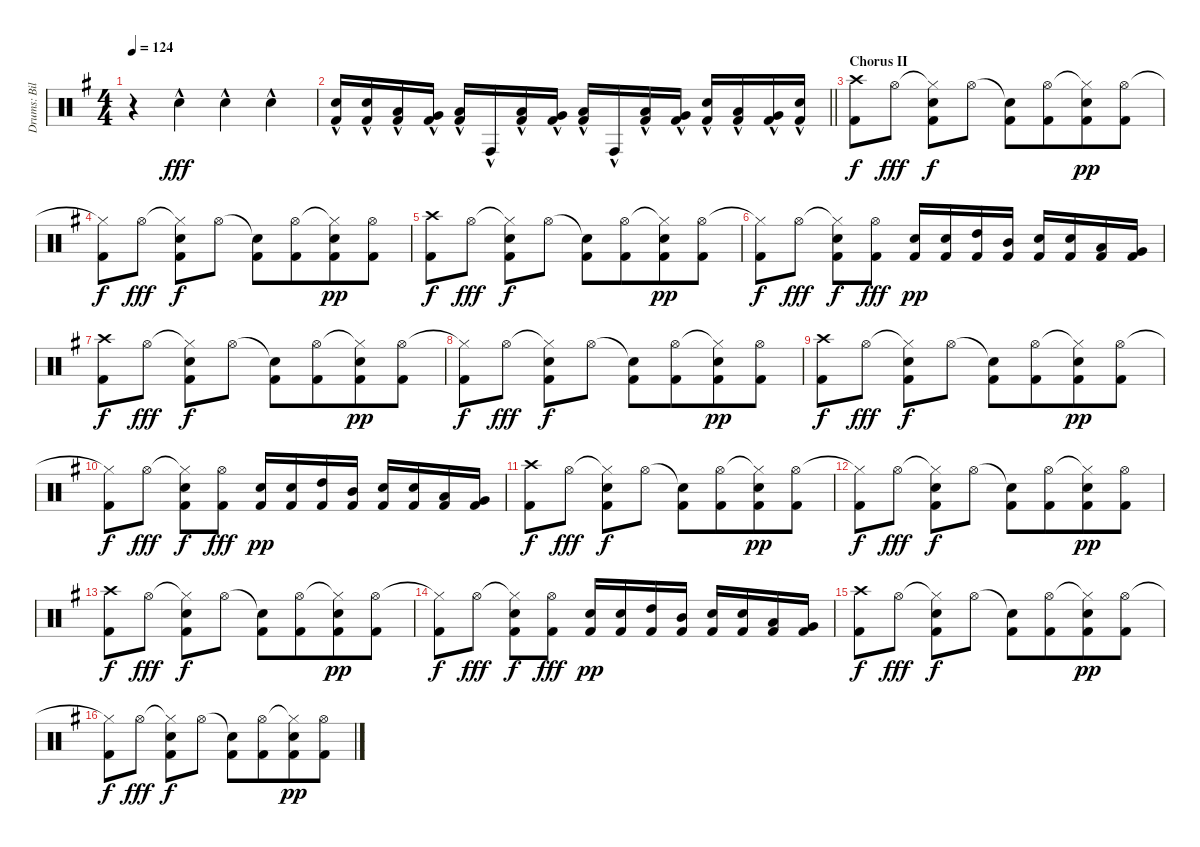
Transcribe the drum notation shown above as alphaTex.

\track ("Drums: Bill" "Drums: Bil") {instrument percussion}
\staff {score}
\articulation defaults
\ts (4 4)
\tempo 124
\clef neutral
\ks g
r.4{dy f} "Electric Snare (hit)"{hac}.4{dy fff} "Electric Snare (hit)"{hac}.4 "Electric Snare (hit)"{hac}.4 |
\barLineRight lightlight
("Electric Snare (hit)"{hac} "Kick (hit) 2"{hac}).16 ("Electric Snare (hit)"{hac} "Kick (hit) 2"{hac}).16 ("Low Tom (hit)"{hac} "Kick (hit) 2"{hac}).16 ("Very Low Tom (hit)"{hac} "Kick (hit) 2"{hac}).16 ("Low Floor Tom (hit)"{hac} "Kick (hit) 2"{hac}).16 "Conga high (hit)"{hac}.16 ("Low Tom (hit)"{hac} "Kick (hit) 2"{hac}).16 ("Very Low Tom (hit)"{hac} "Kick (hit) 2"{hac}).16 ("Low Floor Tom (hit)"{hac} "Kick (hit) 2"{hac}).16 "Conga high (hit)"{hac}.16 ("Low Tom (hit)"{hac} "Kick (hit) 2"{hac}).16 ("Very Low Tom (hit)"{hac} "Kick (hit) 2"{hac}).16 ("Electric Snare (hit)"{hac} "Kick (hit) 2"{hac}).16 ("Low Tom (hit)"{hac} "Kick (hit) 2"{hac}).16 ("Very Low Tom (hit)"{hac} "Kick (hit) 2"{hac}).16 ("Electric Snare (hit)"{hac} "Kick (hit) 2"{hac}).16 |
\section ("" "Chorus II")
("Crash high (hit)" "Kick (hit) 2").8{dy f} "Hi-Hat (open)".8{dy fff} ("Hi-Hat (closed)"{t} "Electric Snare (hit)" "Kick (hit) 2").8{dy f} "Hi-Hat (open)".8 ("Snare (hit)"{t} "Kick (hit) 2").8 ("Hi-Hat (open)" "Kick (hit) 2").8{beam merge} ("Hi-Hat (closed)"{t} "Electric Snare (hit)" "Kick (hit) 2").8{dy pp} ("Hi-Hat (open)" "Kick (hit) 2").8 |
("Hi-Hat (closed)"{t} "Kick (hit) 2").8{dy f} "Hi-Hat (open)".8{dy fff} ("Hi-Hat (closed)"{t} "Electric Snare (hit)" "Kick (hit) 2").8{dy f} "Hi-Hat (open)".8 ("Snare (hit)"{t} "Kick (hit) 2").8 ("Hi-Hat (open)" "Kick (hit) 2").8{beam merge} ("Hi-Hat (closed)"{t} "Electric Snare (hit)" "Kick (hit) 2").8{dy pp} ("Hi-Hat (open)" "Kick (hit) 2").8 |
("Crash high (hit)" "Kick (hit) 2").8{dy f} "Hi-Hat (open)".8{dy fff} ("Hi-Hat (closed)"{t} "Electric Snare (hit)" "Kick (hit) 2").8{dy f} "Hi-Hat (open)".8 ("Snare (hit)"{t} "Kick (hit) 2").8 ("Hi-Hat (open)" "Kick (hit) 2").8{beam merge} ("Hi-Hat (closed)"{t} "Electric Snare (hit)" "Kick (hit) 2").8{dy pp} ("Hi-Hat (open)" "Kick (hit) 2").8 |
("Hi-Hat (closed)"{t} "Kick (hit) 2").8{dy f} "Hi-Hat (open)".8{dy fff} ("Hi-Hat (closed)"{t} "Electric Snare (hit)" "Kick (hit) 2").8{dy f} ("Hi-Hat (open)" "Kick (hit) 2").8{dy fff} ("Electric Snare (hit)" "Kick (hit) 2").16{dy pp} ("Electric Snare (hit)" "Kick (hit) 2").16 ("High Tom (hit)" "Kick (hit) 2").16 ("Mid Tom (hit)" "Kick (hit) 2").16 ("Electric Snare (hit)" "Kick (hit) 2").16 ("Electric Snare (hit)" "Kick (hit) 2").16 ("Low Tom (hit)" "Kick (hit) 2").16 ("Very Low Tom (hit)" "Kick (hit) 2").16 |
("Crash high (hit)" "Kick (hit) 2").8{dy f} "Hi-Hat (open)".8{dy fff} ("Hi-Hat (closed)"{t} "Electric Snare (hit)" "Kick (hit) 2").8{dy f} "Hi-Hat (open)".8 ("Snare (hit)"{t} "Kick (hit) 2").8 ("Hi-Hat (open)" "Kick (hit) 2").8{beam merge} ("Hi-Hat (closed)"{t} "Electric Snare (hit)" "Kick (hit) 2").8{dy pp} ("Hi-Hat (open)" "Kick (hit) 2").8 |
("Hi-Hat (closed)"{t} "Kick (hit) 2").8{dy f} "Hi-Hat (open)".8{dy fff} ("Hi-Hat (closed)"{t} "Electric Snare (hit)" "Kick (hit) 2").8{dy f} "Hi-Hat (open)".8 ("Snare (hit)"{t} "Kick (hit) 2").8 ("Hi-Hat (open)" "Kick (hit) 2").8{beam merge} ("Hi-Hat (closed)"{t} "Electric Snare (hit)" "Kick (hit) 2").8{dy pp} ("Hi-Hat (open)" "Kick (hit) 2").8 |
("Crash high (hit)" "Kick (hit) 2").8{dy f} "Hi-Hat (open)".8{dy fff} ("Hi-Hat (closed)"{t} "Electric Snare (hit)" "Kick (hit) 2").8{dy f} "Hi-Hat (open)".8 ("Snare (hit)"{t} "Kick (hit) 2").8 ("Hi-Hat (open)" "Kick (hit) 2").8{beam merge} ("Hi-Hat (closed)"{t} "Electric Snare (hit)" "Kick (hit) 2").8{dy pp} ("Hi-Hat (open)" "Kick (hit) 2").8 |
("Hi-Hat (closed)"{t} "Kick (hit) 2").8{dy f} "Hi-Hat (open)".8{dy fff} ("Hi-Hat (closed)"{t} "Electric Snare (hit)" "Kick (hit) 2").8{dy f} ("Hi-Hat (open)" "Kick (hit) 2").8{dy fff} ("Electric Snare (hit)" "Kick (hit) 2").16{dy pp} ("Electric Snare (hit)" "Kick (hit) 2").16 ("High Tom (hit)" "Kick (hit) 2").16 ("Mid Tom (hit)" "Kick (hit) 2").16 ("Electric Snare (hit)" "Kick (hit) 2").16 ("Electric Snare (hit)" "Kick (hit) 2").16 ("Low Tom (hit)" "Kick (hit) 2").16 ("Very Low Tom (hit)" "Kick (hit) 2").16 |
("Crash high (hit)" "Kick (hit) 2").8{dy f} "Hi-Hat (open)".8{dy fff} ("Hi-Hat (closed)"{t} "Electric Snare (hit)" "Kick (hit) 2").8{dy f} "Hi-Hat (open)".8 ("Snare (hit)"{t} "Kick (hit) 2").8 ("Hi-Hat (open)" "Kick (hit) 2").8{beam merge} ("Hi-Hat (closed)"{t} "Electric Snare (hit)" "Kick (hit) 2").8{dy pp} ("Hi-Hat (open)" "Kick (hit) 2").8 |
("Hi-Hat (closed)"{t} "Kick (hit) 2").8{dy f} "Hi-Hat (open)".8{dy fff} ("Hi-Hat (closed)"{t} "Electric Snare (hit)" "Kick (hit) 2").8{dy f} "Hi-Hat (open)".8 ("Snare (hit)"{t} "Kick (hit) 2").8 ("Hi-Hat (open)" "Kick (hit) 2").8{beam merge} ("Hi-Hat (closed)"{t} "Electric Snare (hit)" "Kick (hit) 2").8{dy pp} ("Hi-Hat (open)" "Kick (hit) 2").8 |
("Crash high (hit)" "Kick (hit) 2").8{dy f} "Hi-Hat (open)".8{dy fff} ("Hi-Hat (closed)"{t} "Electric Snare (hit)" "Kick (hit) 2").8{dy f} "Hi-Hat (open)".8 ("Snare (hit)"{t} "Kick (hit) 2").8 ("Hi-Hat (open)" "Kick (hit) 2").8{beam merge} ("Hi-Hat (closed)"{t} "Electric Snare (hit)" "Kick (hit) 2").8{dy pp} ("Hi-Hat (open)" "Kick (hit) 2").8 |
("Hi-Hat (closed)"{t} "Kick (hit) 2").8{dy f} "Hi-Hat (open)".8{dy fff} ("Hi-Hat (closed)"{t} "Electric Snare (hit)" "Kick (hit) 2").8{dy f} ("Hi-Hat (open)" "Kick (hit) 2").8{dy fff} ("Electric Snare (hit)" "Kick (hit) 2").16{dy pp} ("Electric Snare (hit)" "Kick (hit) 2").16 ("High Tom (hit)" "Kick (hit) 2").16 ("Mid Tom (hit)" "Kick (hit) 2").16 ("Electric Snare (hit)" "Kick (hit) 2").16 ("Electric Snare (hit)" "Kick (hit) 2").16 ("Low Tom (hit)" "Kick (hit) 2").16 ("Very Low Tom (hit)" "Kick (hit) 2").16 |
("Crash high (hit)" "Kick (hit) 2").8{dy f} "Hi-Hat (open)".8{dy fff} ("Hi-Hat (closed)"{t} "Electric Snare (hit)" "Kick (hit) 2").8{dy f} "Hi-Hat (open)".8 ("Snare (hit)"{t} "Kick (hit) 2").8 ("Hi-Hat (open)" "Kick (hit) 2").8{beam merge} ("Hi-Hat (closed)"{t} "Electric Snare (hit)" "Kick (hit) 2").8{dy pp} ("Hi-Hat (open)" "Kick (hit) 2").8 |
("Hi-Hat (closed)"{t} "Kick (hit) 2").8{dy f} "Hi-Hat (open)".8{dy fff} ("Hi-Hat (closed)"{t} "Electric Snare (hit)" "Kick (hit) 2").8{dy f} "Hi-Hat (open)".8 ("Snare (hit)"{t} "Kick (hit) 2").8 ("Hi-Hat (open)" "Kick (hit) 2").8{beam merge} ("Hi-Hat (closed)"{t} "Electric Snare (hit)" "Kick (hit) 2").8{dy pp} ("Hi-Hat (open)" "Kick (hit) 2").8
